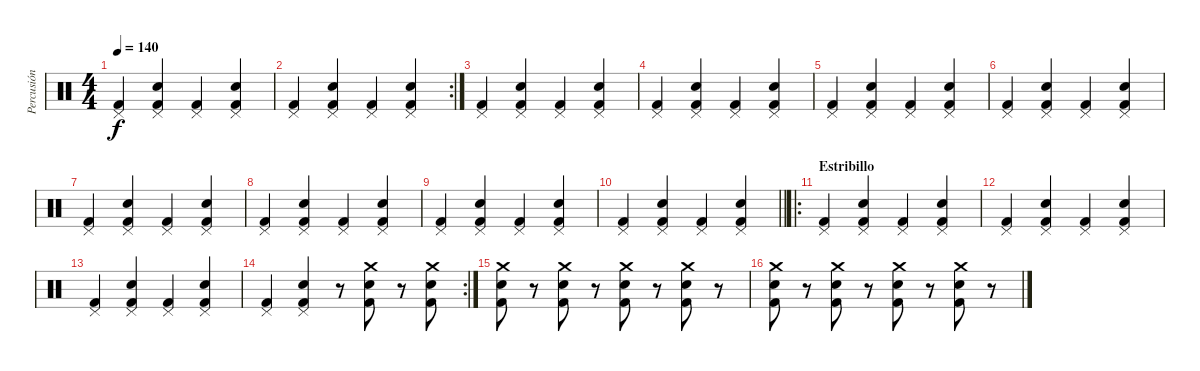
\track ("Percusión" "Percusión") {instrument percussion}
\staff {score}
\articulation defaults
\ts (4 4)
\tempo 140
\clef neutral
\ks c
("Pedal Hi-Hat (hit)" "Kick (hit) 2").4{dy f} ("Pedal Hi-Hat (hit)" "Electric Snare (hit)" "Kick (hit) 2").4 ("Pedal Hi-Hat (hit)" "Kick (hit) 2").4 ("Pedal Hi-Hat (hit)" "Electric Snare (hit)" "Kick (hit) 2").4 |
\rc 2
("Pedal Hi-Hat (hit)" "Kick (hit) 2").4 ("Pedal Hi-Hat (hit)" "Electric Snare (hit)" "Kick (hit) 2").4 ("Pedal Hi-Hat (hit)" "Kick (hit) 2").4 ("Pedal Hi-Hat (hit)" "Electric Snare (hit)" "Kick (hit) 2").4 |
("Pedal Hi-Hat (hit)" "Kick (hit) 2").4 ("Pedal Hi-Hat (hit)" "Electric Snare (hit)" "Kick (hit) 2").4 ("Pedal Hi-Hat (hit)" "Kick (hit) 2").4 ("Pedal Hi-Hat (hit)" "Electric Snare (hit)" "Kick (hit) 2").4 |
("Pedal Hi-Hat (hit)" "Kick (hit) 2").4 ("Pedal Hi-Hat (hit)" "Electric Snare (hit)" "Kick (hit) 2").4 ("Pedal Hi-Hat (hit)" "Kick (hit) 2").4 ("Pedal Hi-Hat (hit)" "Electric Snare (hit)" "Kick (hit) 2").4 |
("Pedal Hi-Hat (hit)" "Kick (hit) 2").4 ("Pedal Hi-Hat (hit)" "Electric Snare (hit)" "Kick (hit) 2").4 ("Pedal Hi-Hat (hit)" "Kick (hit) 2").4 ("Pedal Hi-Hat (hit)" "Electric Snare (hit)" "Kick (hit) 2").4 |
("Pedal Hi-Hat (hit)" "Kick (hit) 2").4 ("Pedal Hi-Hat (hit)" "Electric Snare (hit)" "Kick (hit) 2").4 ("Pedal Hi-Hat (hit)" "Kick (hit) 2").4 ("Pedal Hi-Hat (hit)" "Electric Snare (hit)" "Kick (hit) 2").4 |
("Pedal Hi-Hat (hit)" "Kick (hit) 2").4 ("Pedal Hi-Hat (hit)" "Electric Snare (hit)" "Kick (hit) 2").4 ("Pedal Hi-Hat (hit)" "Kick (hit) 2").4 ("Pedal Hi-Hat (hit)" "Electric Snare (hit)" "Kick (hit) 2").4 |
("Pedal Hi-Hat (hit)" "Kick (hit) 2").4 ("Pedal Hi-Hat (hit)" "Electric Snare (hit)" "Kick (hit) 2").4 ("Pedal Hi-Hat (hit)" "Kick (hit) 2").4 ("Pedal Hi-Hat (hit)" "Electric Snare (hit)" "Kick (hit) 2").4 |
("Pedal Hi-Hat (hit)" "Kick (hit) 2").4 ("Pedal Hi-Hat (hit)" "Electric Snare (hit)" "Kick (hit) 2").4 ("Pedal Hi-Hat (hit)" "Kick (hit) 2").4 ("Pedal Hi-Hat (hit)" "Electric Snare (hit)" "Kick (hit) 2").4 |
\barLineRight lightlight
("Pedal Hi-Hat (hit)" "Kick (hit) 2").4 ("Pedal Hi-Hat (hit)" "Electric Snare (hit)" "Kick (hit) 2").4 ("Pedal Hi-Hat (hit)" "Kick (hit) 2").4 ("Pedal Hi-Hat (hit)" "Electric Snare (hit)" "Kick (hit) 2").4 |
\ro
\section ("" "Estribillo")
("Pedal Hi-Hat (hit)" "Kick (hit) 2").4 ("Pedal Hi-Hat (hit)" "Electric Snare (hit)" "Kick (hit) 2").4 ("Pedal Hi-Hat (hit)" "Kick (hit) 2").4 ("Pedal Hi-Hat (hit)" "Electric Snare (hit)" "Kick (hit) 2").4 |
("Pedal Hi-Hat (hit)" "Kick (hit) 2").4 ("Pedal Hi-Hat (hit)" "Electric Snare (hit)" "Kick (hit) 2").4 ("Pedal Hi-Hat (hit)" "Kick (hit) 2").4 ("Pedal Hi-Hat (hit)" "Electric Snare (hit)" "Kick (hit) 2").4 |
("Pedal Hi-Hat (hit)" "Kick (hit) 2").4 ("Pedal Hi-Hat (hit)" "Electric Snare (hit)" "Kick (hit) 2").4 ("Pedal Hi-Hat (hit)" "Kick (hit) 2").4 ("Pedal Hi-Hat (hit)" "Electric Snare (hit)" "Kick (hit) 2").4 |
\rc 2
("Pedal Hi-Hat (hit)" "Kick (hit) 2").4 ("Pedal Hi-Hat (hit)" "Electric Snare (hit)" "Kick (hit) 2").4 r.8 ("Kick (hit) 2" "Crash medium (hit)" "Electric Snare (hit)").8 r.8 ("Kick (hit) 2" "Crash medium (hit)" "Electric Snare (hit)").8 |
("Kick (hit) 2" "Crash medium (hit)" "Electric Snare (hit)").8 r.8 ("Kick (hit) 2" "Crash medium (hit)" "Electric Snare (hit)").8 r.8 ("Kick (hit) 2" "Crash medium (hit)" "Electric Snare (hit)").8 r.8 ("Kick (hit) 2" "Crash medium (hit)" "Electric Snare (hit)").8 r.8 |
("Kick (hit) 2" "Crash medium (hit)" "Electric Snare (hit)").8 r.8 ("Kick (hit) 2" "Crash medium (hit)" "Electric Snare (hit)").8 r.8 ("Kick (hit) 2" "Crash medium (hit)" "Electric Snare (hit)").8 r.8 ("Kick (hit) 2" "Crash medium (hit)" "Electric Snare (hit)").8 r.8
